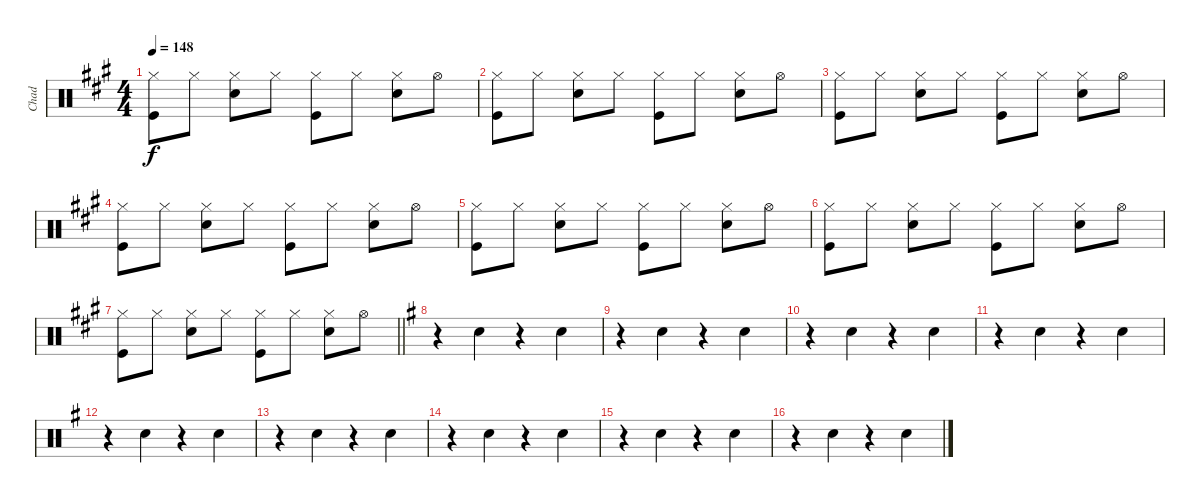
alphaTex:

\track ("Chad" "Chad") {instrument percussion}
\staff {score}
\articulation defaults
\ts (4 4)
\tempo 148
\clef neutral
\ks a
("Hi-Hat (closed)" "Kick (hit)").8{dy f} "Hi-Hat (closed)".8 ("Hi-Hat (closed)" "Snare (hit) 2").8 "Hi-Hat (closed)".8 ("Hi-Hat (closed)" "Kick (hit)").8 "Hi-Hat (closed)".8 ("Hi-Hat (closed)" "Snare (hit) 2").8 "Hi-Hat (open)".8 |
("Hi-Hat (closed)" "Kick (hit)").8 "Hi-Hat (closed)".8 ("Hi-Hat (closed)" "Snare (hit) 2").8 "Hi-Hat (closed)".8 ("Hi-Hat (closed)" "Kick (hit)").8 "Hi-Hat (closed)".8 ("Hi-Hat (closed)" "Snare (hit) 2").8 "Hi-Hat (open)".8 |
("Hi-Hat (closed)" "Kick (hit)").8 "Hi-Hat (closed)".8 ("Hi-Hat (closed)" "Snare (hit) 2").8 "Hi-Hat (closed)".8 ("Hi-Hat (closed)" "Kick (hit)").8 "Hi-Hat (closed)".8 ("Hi-Hat (closed)" "Snare (hit) 2").8 "Hi-Hat (open)".8 |
("Hi-Hat (closed)" "Kick (hit)").8 "Hi-Hat (closed)".8 ("Hi-Hat (closed)" "Snare (hit) 2").8 "Hi-Hat (closed)".8 ("Hi-Hat (closed)" "Kick (hit)").8 "Hi-Hat (closed)".8 ("Hi-Hat (closed)" "Snare (hit) 2").8 "Hi-Hat (open)".8 |
("Hi-Hat (closed)" "Kick (hit)").8 "Hi-Hat (closed)".8 ("Hi-Hat (closed)" "Snare (hit) 2").8 "Hi-Hat (closed)".8 ("Hi-Hat (closed)" "Kick (hit)").8 "Hi-Hat (closed)".8 ("Hi-Hat (closed)" "Snare (hit) 2").8 "Hi-Hat (open)".8 |
("Hi-Hat (closed)" "Kick (hit)").8 "Hi-Hat (closed)".8 ("Hi-Hat (closed)" "Snare (hit) 2").8 "Hi-Hat (closed)".8 ("Hi-Hat (closed)" "Kick (hit)").8 "Hi-Hat (closed)".8 ("Hi-Hat (closed)" "Snare (hit) 2").8 "Hi-Hat (open)".8 |
\barLineRight lightlight
("Hi-Hat (closed)" "Kick (hit)").8 "Hi-Hat (closed)".8 ("Hi-Hat (closed)" "Snare (hit) 2").8 "Hi-Hat (closed)".8 ("Hi-Hat (closed)" "Kick (hit)").8 "Hi-Hat (closed)".8 ("Hi-Hat (closed)" "Snare (hit) 2").8 "Hi-Hat (open)".8 |
\ks g
r.4 "Hand Clap (hit)".4 r.4 "Hand Clap (hit)".4 |
r.4 "Hand Clap (hit)".4 r.4 "Hand Clap (hit)".4 |
r.4 "Hand Clap (hit)".4 r.4 "Hand Clap (hit)".4 |
r.4 "Hand Clap (hit)".4 r.4 "Hand Clap (hit)".4 |
r.4 "Hand Clap (hit)".4 r.4 "Hand Clap (hit)".4 |
r.4 "Hand Clap (hit)".4 r.4 "Hand Clap (hit)".4 |
r.4 "Hand Clap (hit)".4 r.4 "Hand Clap (hit)".4 |
r.4 "Hand Clap (hit)".4 r.4 "Hand Clap (hit)".4 |
r.4 "Hand Clap (hit)".4 r.4 "Hand Clap (hit)".4
